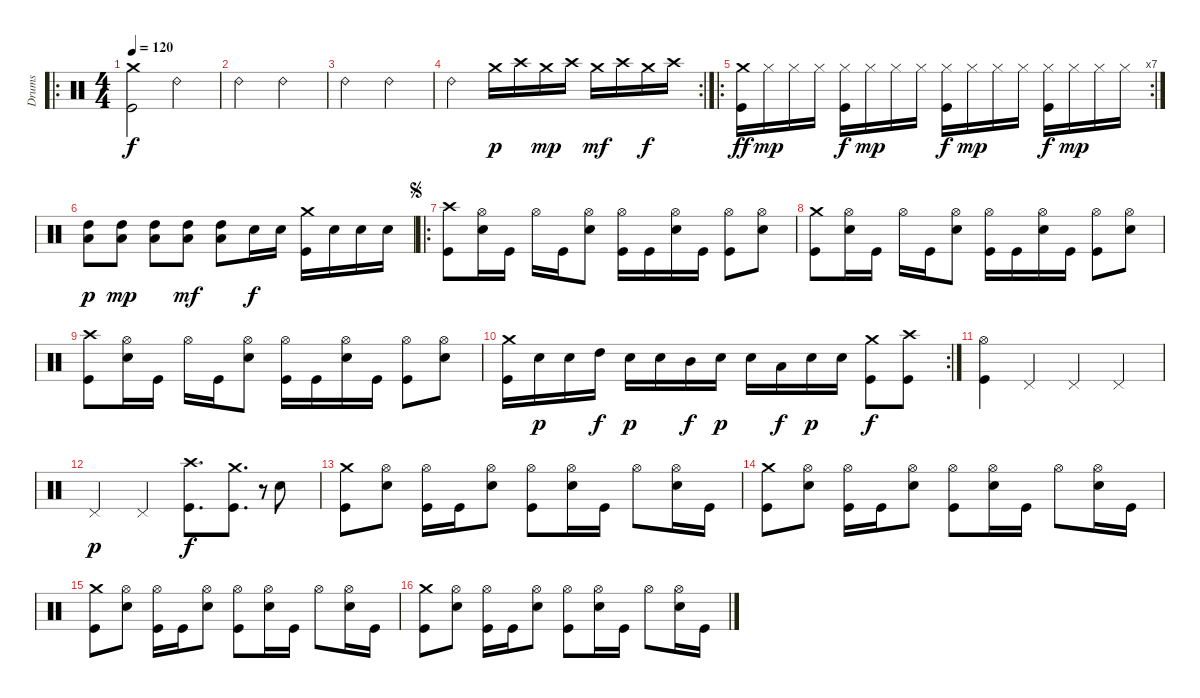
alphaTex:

\bracketExtendMode groupsimilarinstruments
\otherSystemsTrackNameOrientation horizontal
\track ("Drumkit" "Drums") {instrument percussion}
\staff {score}
\articulation defaults
\ro
\ts (4 4)
\beaming (8 2 2 2 2)
\tempo 120
\clef neutral
\ks c
("Crash medium (hit)" "Kick (hit)").2{dy f} "Ride (bell) 2".2 |
"Ride (bell) 2".2 "Ride (bell) 2".2 |
"Ride (bell) 2".2 "Ride (bell) 2".2 |
\rc 2 "Ride (bell) 2".2 "Crash medium (hit)".16{dy p} "Crash high (hit)".16 "Crash medium (hit)".16{dy mp} "Crash high (hit)".16 "Crash medium (hit)".16{dy mf} "Crash high (hit)".16 "Crash medium (hit)".16{dy f} "Crash high (hit)".16
|
\ro
\rc 7
("Crash medium (hit)" "Kick (hit)").16{dy ff} "Hi-Hat (closed)".16{dy mp} "Hi-Hat (closed)".16 "Hi-Hat (closed)".16 ("Hi-Hat (closed)" "Kick (hit)").16{dy f} "Hi-Hat (closed)".16{dy mp} "Hi-Hat (closed)".16 "Hi-Hat (closed)".16 ("Hi-Hat (closed)" "Kick (hit)").16{dy f} "Hi-Hat (closed)".16{dy mp} "Hi-Hat (closed)".16 "Hi-Hat (closed)".16 ("Hi-Hat (closed)" "Kick (hit)").16{dy f} "Hi-Hat (closed)".16{dy mp} "Hi-Hat (closed)".16 "Hi-Hat (closed)".16 |
("Low Tom (hit)" "High Tom (hit)").8{dy p} ("Low Tom (hit)" "High Tom (hit)").8{dy mp} ("High Tom (hit)" "Low Tom (hit)").8 ("High Tom (hit)" "Low Tom (hit)").8{dy mf} ("High Tom (hit)" "Low Tom (hit)").8 "Snare (hit) 2".16{dy f} "Snare (hit) 2".16 ("Crash medium (hit)" "Kick (hit)").16 "Snare (hit) 2".16 "Snare (hit) 2".16 "Snare (hit) 2".16 |
\ro
\jump segno
("Crash high (hit)" "Kick (hit)").8 ("Hi-Hat (open)" "Snare (hit) 2").16 "Kick (hit)".16 "Hi-Hat (open)".16 "Kick (hit)".16 ("Hi-Hat (open)" "Snare (hit) 2").8 ("Hi-Hat (open)" "Kick (hit)").16 "Kick (hit)".16 ("Hi-Hat (open)" "Snare (hit) 2").16 "Kick (hit)".16 ("Hi-Hat (open)" "Kick (hit)").8 ("Hi-Hat (open)" "Snare (hit) 2").8 |
("Crash medium (hit)" "Kick (hit)").8 ("Hi-Hat (open)" "Snare (hit) 2").16 "Kick (hit)".16 "Hi-Hat (open)".16 "Kick (hit)".16 ("Hi-Hat (open)" "Snare (hit) 2").8 ("Hi-Hat (open)" "Kick (hit)").16 "Kick (hit)".16 ("Hi-Hat (open)" "Snare (hit) 2").16 "Kick (hit)".16 ("Hi-Hat (open)" "Kick (hit)").8 ("Hi-Hat (open)" "Snare (hit) 2").8 |
("Crash high (hit)" "Kick (hit)").8 ("Hi-Hat (open)" "Snare (hit) 2").16 "Kick (hit)".16 "Hi-Hat (open)".16 "Kick (hit)".16 ("Hi-Hat (open)" "Snare (hit) 2").8 ("Hi-Hat (open)" "Kick (hit)").16 "Kick (hit)".16 ("Hi-Hat (open)" "Snare (hit) 2").16 "Kick (hit)".16 ("Hi-Hat (open)" "Kick (hit)").8 ("Hi-Hat (open)" "Snare (hit) 2").8 |
\rc 2
("Crash medium (hit)" "Kick (hit)").16 "Snare (hit) 2".16{dy p} "Snare (hit) 2".16 "High Tom (hit)".16{dy f} "Snare (hit) 2".16{dy p} "Snare (hit) 2".16 "Mid Tom (hit)".16{dy f} "Snare (hit) 2".16{dy p} "Snare (hit) 2".16 "Low Tom (hit)".16{dy f} "Snare (hit) 2".16{dy p} "Snare (hit) 2".16 ("Crash medium (hit)" "Kick (hit)").8{dy f} ("Crash high (hit)" "Kick (hit)").8 |
("Hi-Hat (open)" "Kick (hit)").4 "Pedal Hi-Hat (hit)".4 "Pedal Hi-Hat (hit)".4 "Pedal Hi-Hat (hit)".4 |
"Pedal Hi-Hat (hit)".4{dy p} "Pedal Hi-Hat (hit)".4 ("Crash high (hit)" "Kick (hit)").8{d dy f} ("Crash medium (hit)" "Kick (hit)").8{d} r.8{gr} "Snare (hit) 2".8 |
("Crash medium (hit)" "Kick (hit)").8 ("Hi-Hat (open)" "Snare (hit) 2").8 ("Hi-Hat (open)" "Kick (hit)").16 "Kick (hit)".16 ("Hi-Hat (open)" "Snare (hit) 2").8 ("Hi-Hat (open)" "Kick (hit)").8 ("Hi-Hat (open)" "Snare (hit) 2").16 "Kick (hit)".16 "Hi-Hat (open)".8 ("Hi-Hat (open)" "Snare (hit) 2").16 "Kick (hit)".16 |
("Crash medium (hit)" "Kick (hit)").8 ("Hi-Hat (open)" "Snare (hit) 2").8 ("Hi-Hat (open)" "Kick (hit)").16 "Kick (hit)".16 ("Hi-Hat (open)" "Snare (hit) 2").8 ("Hi-Hat (open)" "Kick (hit)").8 ("Hi-Hat (open)" "Snare (hit) 2").16 "Kick (hit)".16 "Hi-Hat (open)".8 ("Hi-Hat (open)" "Snare (hit) 2").16 "Kick (hit)".16 |
("Crash medium (hit)" "Kick (hit)").8 ("Hi-Hat (open)" "Snare (hit) 2").8 ("Hi-Hat (open)" "Kick (hit)").16 "Kick (hit)".16 ("Hi-Hat (open)" "Snare (hit) 2").8 ("Hi-Hat (open)" "Kick (hit)").8 ("Hi-Hat (open)" "Snare (hit) 2").16 "Kick (hit)".16 "Hi-Hat (open)".8 ("Hi-Hat (open)" "Snare (hit) 2").16 "Kick (hit)".16 |
("Crash medium (hit)" "Kick (hit)").8 ("Hi-Hat (open)" "Snare (hit) 2").8 ("Hi-Hat (open)" "Kick (hit)").16 "Kick (hit)".16 ("Hi-Hat (open)" "Snare (hit) 2").8 ("Hi-Hat (open)" "Kick (hit)").8 ("Hi-Hat (open)" "Snare (hit) 2").16 "Kick (hit)".16 "Hi-Hat (open)".8 ("Hi-Hat (open)" "Snare (hit) 2").16 "Kick (hit)".16
